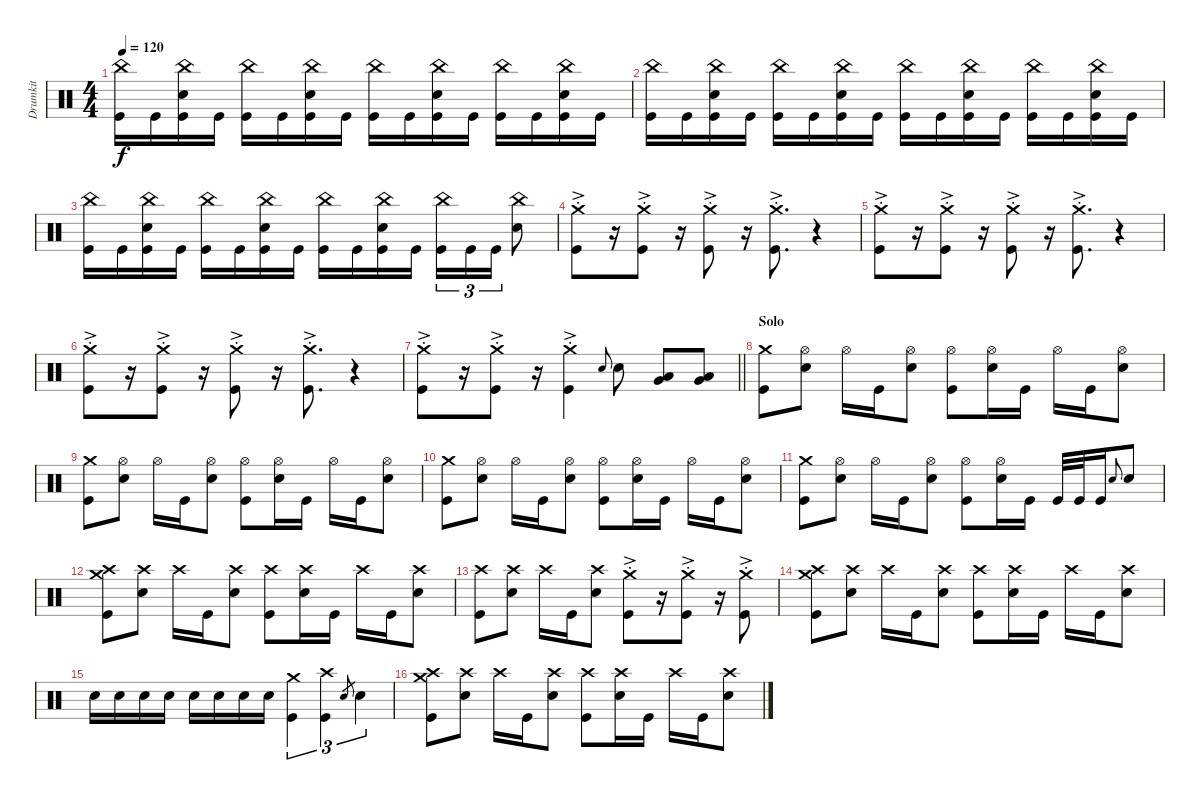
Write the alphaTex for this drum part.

\track ("Drumkit" "Drumkit") {instrument percussion}
\staff {score}
\articulation defaults
\ts (4 4)
\tempo 120
\clef neutral
\ks c
("China (hit)" "Kick (hit)").16{dy f} "Kick (hit)".16 ("Kick (hit)" "Snare (hit) 2" "China (hit)").16 "Kick (hit)".16 ("Kick (hit)" "China (hit)").16 "Kick (hit)".16 ("Kick (hit)" "Snare (hit) 2" "China (hit)").16 "Kick (hit)".16 ("Kick (hit)" "China (hit)").16 "Kick (hit)".16 ("Kick (hit)" "Snare (hit) 2" "China (hit)").16 "Kick (hit)".16 ("Kick (hit)" "China (hit)").16 "Kick (hit)".16 ("Kick (hit)" "Snare (hit) 2" "China (hit)").16 "Kick (hit)".16 |
("China (hit)" "Kick (hit)").16 "Kick (hit)".16 ("Kick (hit)" "Snare (hit) 2" "China (hit)").16 "Kick (hit)".16 ("Kick (hit)" "China (hit)").16 "Kick (hit)".16 ("Kick (hit)" "Snare (hit) 2" "China (hit)").16 "Kick (hit)".16 ("Kick (hit)" "China (hit)").16 "Kick (hit)".16 ("Kick (hit)" "Snare (hit) 2" "China (hit)").16 "Kick (hit)".16 ("Kick (hit)" "China (hit)").16 "Kick (hit)".16 ("Kick (hit)" "Snare (hit) 2" "China (hit)").16 "Kick (hit)".16 |
("China (hit)" "Kick (hit)").16 "Kick (hit)".16 ("Kick (hit)" "Snare (hit) 2" "China (hit)").16 "Kick (hit)".16 ("Kick (hit)" "China (hit)").16 "Kick (hit)".16 ("Kick (hit)" "Snare (hit) 2" "China (hit)").16 "Kick (hit)".16 ("Kick (hit)" "China (hit)").16 "Kick (hit)".16 ("Kick (hit)" "Snare (hit) 2" "China (hit)").16 "Kick (hit)".16 ("Kick (hit)" "China (hit)").16{tu (3 2)} "Kick (hit)".16{tu (3 2)} "Kick (hit)".16{tu (3 2)} ("Snare (hit) 2" "China (hit)").8 |
("Kick (hit)" "Crash medium (hit)"{ac st}).8 r.16 ("Kick (hit)" "Crash medium (hit)"{ac st}).8 r.16 ("Kick (hit)" "Crash medium (hit)"{ac st}).8 r.16 ("Kick (hit)" "Crash medium (hit)"{ac st}).8{d} r.4 |
("Kick (hit)" "Crash medium (hit)"{ac st}).8 r.16 ("Kick (hit)" "Crash medium (hit)"{ac st}).8 r.16 ("Kick (hit)" "Crash medium (hit)"{ac st}).8 r.16 ("Kick (hit)" "Crash medium (hit)"{ac st}).8{d} r.4 |
("Kick (hit)" "Crash medium (hit)"{ac st}).8 r.16 ("Kick (hit)" "Crash medium (hit)"{ac st}).8 r.16 ("Kick (hit)" "Crash medium (hit)"{ac st}).8 r.16 ("Kick (hit)" "Crash medium (hit)"{ac st}).8{d} r.4 |
\barLineRight lightlight
("Kick (hit)" "Crash medium (hit)"{ac st}).8 r.16 ("Kick (hit)" "Crash medium (hit)"{ac st}).8 r.16 ("Kick (hit)" "Crash medium (hit)"{ac st}).4 "Snare (hit)".8{gr onbeat} "Snare (hit) 2".8 ("Low Tom (hit)" "Very Low Tom (hit)").8 ("Very Low Tom (hit)" "Low Tom (hit)").8 |
\section ("" "Solo")
("Crash medium (hit)" "Kick (hit)").8 ("Snare (hit) 2" "Hi-Hat (open)").8 "Hi-Hat (open)".16 "Kick (hit)".16 ("Snare (hit) 2" "Hi-Hat (open)").8 ("Kick (hit)" "Hi-Hat (open)").8 ("Snare (hit) 2" "Hi-Hat (open)").16 "Kick (hit)".16 "Hi-Hat (open)".16 "Kick (hit)".16 ("Snare (hit) 2" "Hi-Hat (open)").8 |
("Crash medium (hit)" "Kick (hit)").8 ("Snare (hit) 2" "Hi-Hat (open)").8 "Hi-Hat (open)".16 "Kick (hit)".16 ("Snare (hit) 2" "Hi-Hat (open)").8 ("Kick (hit)" "Hi-Hat (open)").8 ("Snare (hit) 2" "Hi-Hat (open)").16 "Kick (hit)".16 "Hi-Hat (open)".16 "Kick (hit)".16 ("Snare (hit) 2" "Hi-Hat (open)").8 |
("Crash medium (hit)" "Kick (hit)").8 ("Snare (hit) 2" "Hi-Hat (open)").8 "Hi-Hat (open)".16 "Kick (hit)".16 ("Snare (hit) 2" "Hi-Hat (open)").8 ("Kick (hit)" "Hi-Hat (open)").8 ("Snare (hit) 2" "Hi-Hat (open)").16 "Kick (hit)".16 "Hi-Hat (open)".16 "Kick (hit)".16 ("Snare (hit) 2" "Hi-Hat (open)").8 |
("Crash medium (hit)" "Kick (hit)").8 ("Snare (hit) 2" "Hi-Hat (open)").8 "Hi-Hat (open)".16 "Kick (hit)".16 ("Snare (hit) 2" "Hi-Hat (open)").8 ("Kick (hit)" "Hi-Hat (open)").8 ("Snare (hit) 2" "Hi-Hat (open)").16 "Kick (hit)".16 "Kick (hit)".32 "Kick (hit)".32 "Kick (hit)".16 "Snare (hit)".8{gr onbeat} "Snare (hit) 2".8 |
("Crash medium (hit)" "Kick (hit)" "Crash high (hit)").8 ("Snare (hit) 2" "Crash high (hit)").8 "Crash high (hit)".16 "Kick (hit)".16 ("Snare (hit) 2" "Crash high (hit)").8 ("Kick (hit)" "Crash high (hit)").8 ("Snare (hit) 2" "Crash high (hit)").16 "Kick (hit)".16 "Crash high (hit)".16 "Kick (hit)".16 ("Snare (hit) 2" "Crash high (hit)").8 |
("Kick (hit)" "Crash high (hit)").8 ("Snare (hit) 2" "Crash high (hit)").8 "Crash high (hit)".16 "Kick (hit)".16 ("Snare (hit) 2" "Crash high (hit)").8 ("Kick (hit)" "Crash medium (hit)"{ac st}).8 r.16 ("Kick (hit)" "Crash medium (hit)"{ac st}).8 r.16 ("Kick (hit)" "Crash medium (hit)"{ac st}).8 |
("Crash medium (hit)" "Kick (hit)" "Crash high (hit)").8 ("Snare (hit) 2" "Crash high (hit)").8 "Crash high (hit)".16 "Kick (hit)".16 ("Snare (hit) 2" "Crash high (hit)").8 ("Kick (hit)" "Crash high (hit)").8 ("Snare (hit) 2" "Crash high (hit)").16 "Kick (hit)".16 "Crash high (hit)".16 "Kick (hit)".16 ("Snare (hit) 2" "Crash high (hit)").8 |
"Snare (hit) 2".16 "Snare (hit) 2".16 "Snare (hit) 2".16 "Snare (hit) 2".16 "Snare (hit) 2".16 "Snare (hit) 2".16 "Snare (hit) 2".16 "Snare (hit) 2".16 ("Crash medium (hit)" "Kick (hit)").4{tu (3 2)} ("Kick (hit)" "Crash high (hit)").4{tu (3 2)} "Snare (hit)".8{gr} "Snare (hit) 2".4{tu (3 2)} |
("Crash medium (hit)" "Kick (hit)" "Crash high (hit)").8 ("Snare (hit) 2" "Crash high (hit)").8 "Crash high (hit)".16 "Kick (hit)".16 ("Snare (hit) 2" "Crash high (hit)").8 ("Kick (hit)" "Crash high (hit)").8 ("Snare (hit) 2" "Crash high (hit)").16 "Kick (hit)".16 "Crash high (hit)".16 "Kick (hit)".16 ("Snare (hit) 2" "Crash high (hit)").8
